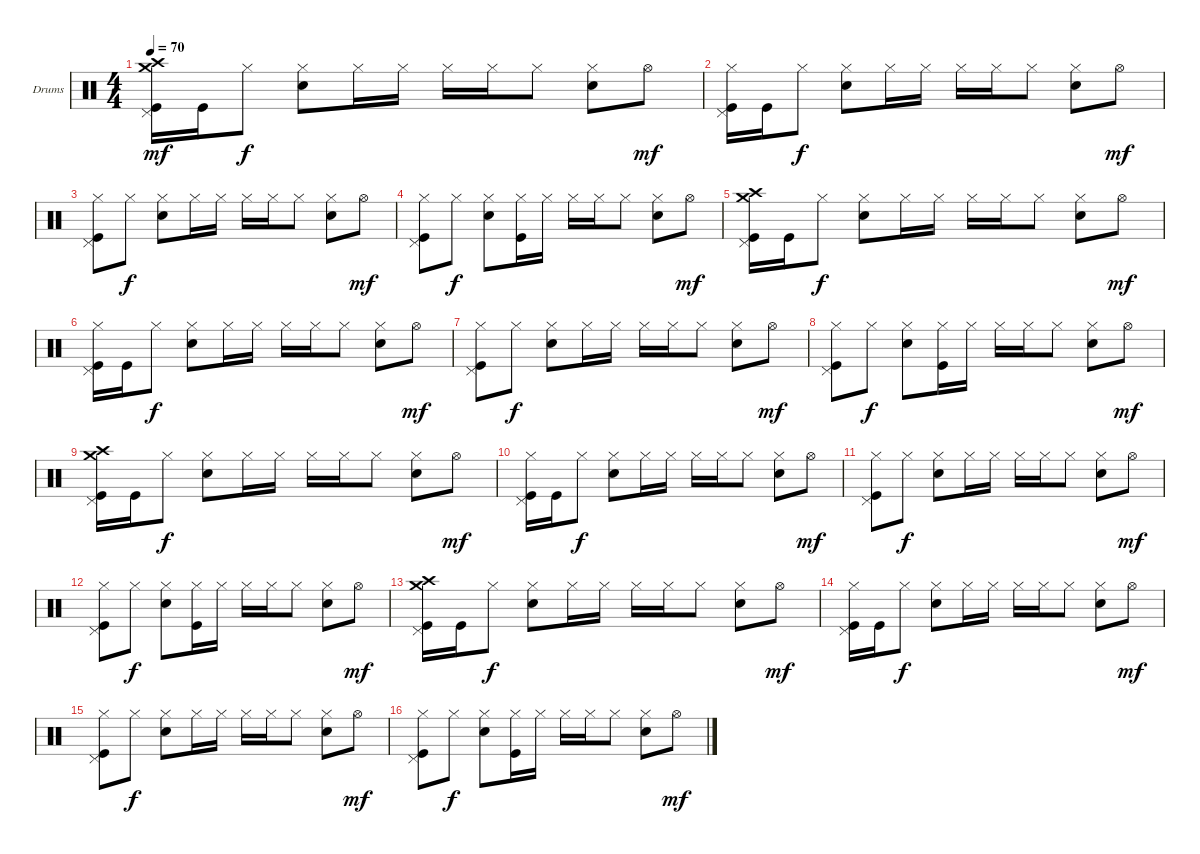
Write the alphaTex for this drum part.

\defaultSystemsLayout 4
\bracketExtendMode groupsimilarinstruments
\firstSystemTrackNameOrientation horizontal
\otherSystemsTrackNameOrientation horizontal
\track ("Drumkit" "Drums") {instrument percussion}
\staff {score}
\articulation defaults
\ts (4 4)
\tempo 70
\clef neutral
\ks c
("Pedal Hi-Hat (hit)" "Kick (hit)" "Crash medium (hit)" "Crash high (hit)").16{dy mf} "Kick (hit)".16 "Hi-Hat (closed)".8{dy f} ("Snare (hit) 2" "Hi-Hat (closed)").8 "Hi-Hat (closed)".16 "Hi-Hat (closed)".16 "Hi-Hat (closed)".16 "Hi-Hat (closed)".16 "Hi-Hat (closed)".8 ("Snare (hit) 2" "Hi-Hat (closed)").8 "Hi-Hat (open)".8{dy mf} |
("Pedal Hi-Hat (hit)" "Kick (hit)" "Hi-Hat (closed)").16 "Kick (hit)".16 "Hi-Hat (closed)".8{dy f} ("Snare (hit) 2" "Hi-Hat (closed)").8 "Hi-Hat (closed)".16 "Hi-Hat (closed)".16 "Hi-Hat (closed)".16 "Hi-Hat (closed)".16 "Hi-Hat (closed)".8 ("Snare (hit) 2" "Hi-Hat (closed)").8 "Hi-Hat (open)".8{dy mf} |
("Pedal Hi-Hat (hit)" "Kick (hit)" "Hi-Hat (closed)").8 "Hi-Hat (closed)".8{dy f} ("Snare (hit) 2" "Hi-Hat (closed)").8 "Hi-Hat (closed)".16 "Hi-Hat (closed)".16 "Hi-Hat (closed)".16 "Hi-Hat (closed)".16 "Hi-Hat (closed)".8 ("Snare (hit) 2" "Hi-Hat (closed)").8 "Hi-Hat (open)".8{dy mf} |
("Pedal Hi-Hat (hit)" "Kick (hit)" "Hi-Hat (closed)").8 "Hi-Hat (closed)".8{dy f} ("Snare (hit) 2" "Hi-Hat (closed)").8 ("Kick (hit)" "Hi-Hat (closed)").16 "Hi-Hat (closed)".16 "Hi-Hat (closed)".16 "Hi-Hat (closed)".16 "Hi-Hat (closed)".8 ("Snare (hit) 2" "Hi-Hat (closed)").8 "Hi-Hat (open)".8{dy mf} |
("Pedal Hi-Hat (hit)" "Kick (hit)" "Crash medium (hit)" "Crash high (hit)").16 "Kick (hit)".16 "Hi-Hat (closed)".8{dy f} ("Snare (hit) 2" "Hi-Hat (closed)").8 "Hi-Hat (closed)".16 "Hi-Hat (closed)".16 "Hi-Hat (closed)".16 "Hi-Hat (closed)".16 "Hi-Hat (closed)".8 ("Snare (hit) 2" "Hi-Hat (closed)").8 "Hi-Hat (open)".8{dy mf} |
("Pedal Hi-Hat (hit)" "Kick (hit)" "Hi-Hat (closed)").16 "Kick (hit)".16 "Hi-Hat (closed)".8{dy f} ("Snare (hit) 2" "Hi-Hat (closed)").8 "Hi-Hat (closed)".16 "Hi-Hat (closed)".16 "Hi-Hat (closed)".16 "Hi-Hat (closed)".16 "Hi-Hat (closed)".8 ("Snare (hit) 2" "Hi-Hat (closed)").8 "Hi-Hat (open)".8{dy mf} |
("Pedal Hi-Hat (hit)" "Kick (hit)" "Hi-Hat (closed)").8 "Hi-Hat (closed)".8{dy f} ("Snare (hit) 2" "Hi-Hat (closed)").8 "Hi-Hat (closed)".16 "Hi-Hat (closed)".16 "Hi-Hat (closed)".16 "Hi-Hat (closed)".16 "Hi-Hat (closed)".8 ("Snare (hit) 2" "Hi-Hat (closed)").8 "Hi-Hat (open)".8{dy mf} |
("Pedal Hi-Hat (hit)" "Kick (hit)" "Hi-Hat (closed)").8 "Hi-Hat (closed)".8{dy f} ("Snare (hit) 2" "Hi-Hat (closed)").8 ("Kick (hit)" "Hi-Hat (closed)").16 "Hi-Hat (closed)".16 "Hi-Hat (closed)".16 "Hi-Hat (closed)".16 "Hi-Hat (closed)".8 ("Snare (hit) 2" "Hi-Hat (closed)").8 "Hi-Hat (open)".8{dy mf} |
("Pedal Hi-Hat (hit)" "Kick (hit)" "Crash medium (hit)" "Crash high (hit)").16 "Kick (hit)".16 "Hi-Hat (closed)".8{dy f} ("Snare (hit) 2" "Hi-Hat (closed)").8 "Hi-Hat (closed)".16 "Hi-Hat (closed)".16 "Hi-Hat (closed)".16 "Hi-Hat (closed)".16 "Hi-Hat (closed)".8 ("Snare (hit) 2" "Hi-Hat (closed)").8 "Hi-Hat (open)".8{dy mf} |
("Pedal Hi-Hat (hit)" "Kick (hit)" "Hi-Hat (closed)").16 "Kick (hit)".16 "Hi-Hat (closed)".8{dy f} ("Snare (hit) 2" "Hi-Hat (closed)").8 "Hi-Hat (closed)".16 "Hi-Hat (closed)".16 "Hi-Hat (closed)".16 "Hi-Hat (closed)".16 "Hi-Hat (closed)".8 ("Snare (hit) 2" "Hi-Hat (closed)").8 "Hi-Hat (open)".8{dy mf} |
("Pedal Hi-Hat (hit)" "Kick (hit)" "Hi-Hat (closed)").8 "Hi-Hat (closed)".8{dy f} ("Snare (hit) 2" "Hi-Hat (closed)").8 "Hi-Hat (closed)".16 "Hi-Hat (closed)".16 "Hi-Hat (closed)".16 "Hi-Hat (closed)".16 "Hi-Hat (closed)".8 ("Snare (hit) 2" "Hi-Hat (closed)").8 "Hi-Hat (open)".8{dy mf} |
("Pedal Hi-Hat (hit)" "Kick (hit)" "Hi-Hat (closed)").8 "Hi-Hat (closed)".8{dy f} ("Snare (hit) 2" "Hi-Hat (closed)").8 ("Kick (hit)" "Hi-Hat (closed)").16 "Hi-Hat (closed)".16 "Hi-Hat (closed)".16 "Hi-Hat (closed)".16 "Hi-Hat (closed)".8 ("Snare (hit) 2" "Hi-Hat (closed)").8 "Hi-Hat (open)".8{dy mf} |
("Pedal Hi-Hat (hit)" "Kick (hit)" "Crash medium (hit)" "Crash high (hit)").16 "Kick (hit)".16 "Hi-Hat (closed)".8{dy f} ("Snare (hit) 2" "Hi-Hat (closed)").8 "Hi-Hat (closed)".16 "Hi-Hat (closed)".16 "Hi-Hat (closed)".16 "Hi-Hat (closed)".16 "Hi-Hat (closed)".8 ("Snare (hit) 2" "Hi-Hat (closed)").8 "Hi-Hat (open)".8{dy mf} |
("Pedal Hi-Hat (hit)" "Kick (hit)" "Hi-Hat (closed)").16 "Kick (hit)".16 "Hi-Hat (closed)".8{dy f} ("Snare (hit) 2" "Hi-Hat (closed)").8 "Hi-Hat (closed)".16 "Hi-Hat (closed)".16 "Hi-Hat (closed)".16 "Hi-Hat (closed)".16 "Hi-Hat (closed)".8 ("Snare (hit) 2" "Hi-Hat (closed)").8 "Hi-Hat (open)".8{dy mf} |
("Pedal Hi-Hat (hit)" "Kick (hit)" "Hi-Hat (closed)").8 "Hi-Hat (closed)".8{dy f} ("Snare (hit) 2" "Hi-Hat (closed)").8 "Hi-Hat (closed)".16 "Hi-Hat (closed)".16 "Hi-Hat (closed)".16 "Hi-Hat (closed)".16 "Hi-Hat (closed)".8 ("Snare (hit) 2" "Hi-Hat (closed)").8 "Hi-Hat (open)".8{dy mf} |
("Pedal Hi-Hat (hit)" "Kick (hit)" "Hi-Hat (closed)").8 "Hi-Hat (closed)".8{dy f} ("Snare (hit) 2" "Hi-Hat (closed)").8 ("Kick (hit)" "Hi-Hat (closed)").16 "Hi-Hat (closed)".16 "Hi-Hat (closed)".16 "Hi-Hat (closed)".16 "Hi-Hat (closed)".8 ("Snare (hit) 2" "Hi-Hat (closed)").8 "Hi-Hat (open)".8{dy mf}
